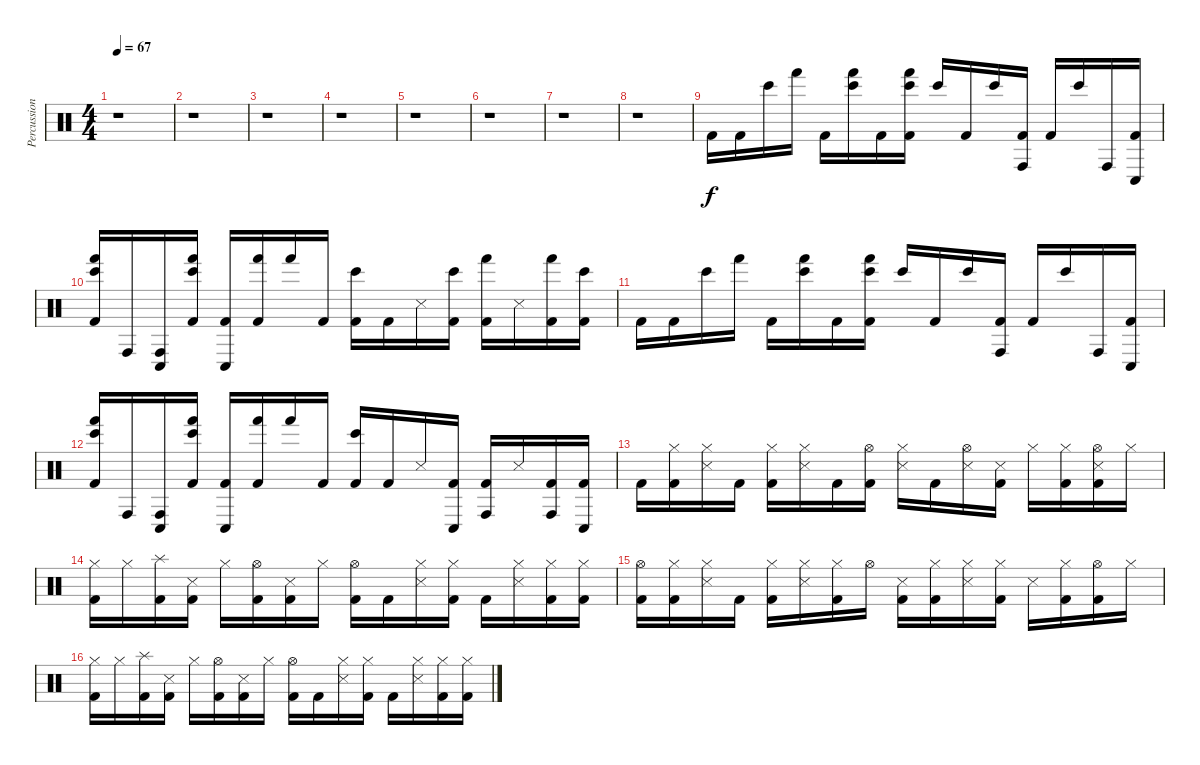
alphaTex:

\track ("Percussion" "Percussion") {instrument percussion}
\staff {score}
\articulation defaults
\ts (4 4)
\tempo 67
\clef neutral
\ks c
r.1{dy f} |
r.1 |
r.1 |
r.1 |
r.1 |
r.1 |
r.1 |
r.1 |
"Kick (hit) 2".16 "Kick (hit) 2".16 "Bongo High (hit)".16 "Hand (hit)".16 "Kick (hit) 2".16 ("Hand (hit)" "Bongo High (hit)").16 "Kick (hit) 2".16 ("Hand (hit)" "Bongo High (hit)" "Kick (hit) 2").16 "Bongo High (hit)".16 "Kick (hit) 2".16 "Bongo High (hit)".16 ("Conga high (hit)" "Kick (hit) 2").16 "Kick (hit) 2".16 "Bongo High (hit)".16 "Conga high (hit)".16 ("Conga low (hit)" "Kick (hit) 2").16 |
("Hand (hit)" "Bongo High (hit)" "Kick (hit) 2").16 "Conga high (hit)".16 ("Conga low (hit)" "Conga high (hit)").16 ("Hand (hit)" "Bongo High (hit)" "Kick (hit) 2").16 ("Conga low (hit)" "Kick (hit) 2").16 ("Hand (hit)" "Kick (hit) 2").16 "Hand (hit)".16 "Kick (hit) 2".16 ("Bongo High (hit)" "Kick (hit) 2").16 "Kick (hit) 2".16 "Snare (side stick) 3".16 ("Bongo High (hit)" "Kick (hit) 2").16 ("Hand (hit)" "Kick (hit) 2").16 "Snare (side stick) 3".16 ("Hand (hit)" "Kick (hit) 2").16 ("Bongo High (hit)" "Kick (hit) 2").16 |
"Kick (hit) 2".16 "Kick (hit) 2".16 "Bongo High (hit)".16 "Hand (hit)".16 "Kick (hit) 2".16 ("Hand (hit)" "Bongo High (hit)").16 "Kick (hit) 2".16 ("Hand (hit)" "Bongo High (hit)" "Kick (hit) 2").16 "Bongo High (hit)".16 "Kick (hit) 2".16 "Bongo High (hit)".16 ("Conga high (hit)" "Kick (hit) 2").16 "Kick (hit) 2".16 "Bongo High (hit)".16 "Conga high (hit)".16 ("Conga low (hit)" "Kick (hit) 2").16 |
("Hand (hit)" "Bongo High (hit)" "Kick (hit) 2").16 "Conga high (hit)".16 ("Conga low (hit)" "Conga high (hit)").16 ("Hand (hit)" "Bongo High (hit)" "Kick (hit) 2").16 ("Conga low (hit)" "Kick (hit) 2").16 ("Hand (hit)" "Kick (hit) 2").16 "Hand (hit)".16 "Kick (hit) 2".16 ("Bongo High (hit)" "Kick (hit) 2").16 "Kick (hit) 2".16 "Snare (side stick) 3".16 ("Conga low (hit)" "Kick (hit) 2").16 ("Conga high (hit)" "Kick (hit) 2").16 "Snare (side stick) 3".16 ("Conga high (hit)" "Kick (hit) 2").16 ("Conga low (hit)" "Kick (hit) 2").16 |
"Kick (hit) 2".16 ("Hi-Hat (closed)" "Kick (hit) 2").16 ("Hi-Hat (closed)" "Snare (side stick) 3").16 "Kick (hit) 2".16 ("Hi-Hat (closed)" "Kick (hit) 2").16 ("Hi-Hat (closed)" "Snare (side stick) 3").16 "Kick (hit) 2".16 ("Hi-Hat (open)" "Kick (hit) 2").16 ("Hi-Hat (closed)" "Snare (side stick) 3").16 "Kick (hit) 2".16 ("Hi-Hat (open)" "Snare (side stick) 3").16 ("Snare (side stick) 3" "Kick (hit) 2").16 "Hi-Hat (closed)".16 ("Hi-Hat (closed)" "Kick (hit) 2").16 ("Hi-Hat (open)" "Snare (side stick) 3" "Kick (hit) 2").16 "Hi-Hat (closed)".16 |
("Hi-Hat (closed)" "Kick (hit) 2").16 "Hi-Hat (closed)".16 ("Splash (hit)" "Kick (hit) 2").16 ("Snare (side stick) 3" "Kick (hit) 2").16 "Hi-Hat (closed)".16 ("Hi-Hat (open)" "Kick (hit) 2").16 ("Snare (side stick) 3" "Kick (hit) 2").16 "Hi-Hat (closed)".16 ("Hi-Hat (open)" "Kick (hit) 2").16 "Kick (hit) 2".16 ("Hi-Hat (closed)" "Snare (side stick) 3").16 ("Hi-Hat (closed)" "Kick (hit) 2").16 "Kick (hit) 2".16 ("Hi-Hat (closed)" "Snare (side stick) 3").16 ("Hi-Hat (closed)" "Kick (hit) 2").16 ("Hi-Hat (closed)" "Kick (hit) 2").16 |
("Hi-Hat (open)" "Kick (hit) 2").16 ("Hi-Hat (closed)" "Kick (hit) 2").16 ("Hi-Hat (closed)" "Snare (side stick) 3").16 "Kick (hit) 2".16 ("Hi-Hat (closed)" "Kick (hit) 2").16 ("Hi-Hat (closed)" "Snare (side stick) 3").16 ("Hi-Hat (closed)" "Kick (hit) 2").16 "Hi-Hat (open)".16 ("Snare (side stick) 3" "Kick (hit) 2").16 ("Hi-Hat (closed)" "Kick (hit) 2").16 ("Hi-Hat (closed)" "Snare (side stick) 3").16 ("Hi-Hat (closed)" "Kick (hit) 2").16 "Snare (side stick) 3".16 ("Hi-Hat (closed)" "Kick (hit) 2").16 ("Hi-Hat (open)" "Kick (hit) 2").16 "Hi-Hat (closed)".16 |
("Hi-Hat (closed)" "Kick (hit) 2").16 "Hi-Hat (closed)".16 ("Splash (hit)" "Kick (hit) 2").16 ("Snare (side stick) 3" "Kick (hit) 2").16 "Hi-Hat (closed)".16 ("Hi-Hat (open)" "Kick (hit) 2").16 ("Snare (side stick) 3" "Kick (hit) 2").16 "Hi-Hat (closed)".16 ("Hi-Hat (open)" "Kick (hit) 2").16 "Kick (hit) 2".16 ("Hi-Hat (closed)" "Snare (side stick) 3").16 ("Hi-Hat (closed)" "Kick (hit) 2").16 "Kick (hit) 2".16 ("Hi-Hat (closed)" "Snare (side stick) 3").16 ("Hi-Hat (closed)" "Kick (hit) 2").16 ("Hi-Hat (closed)" "Kick (hit) 2").16
